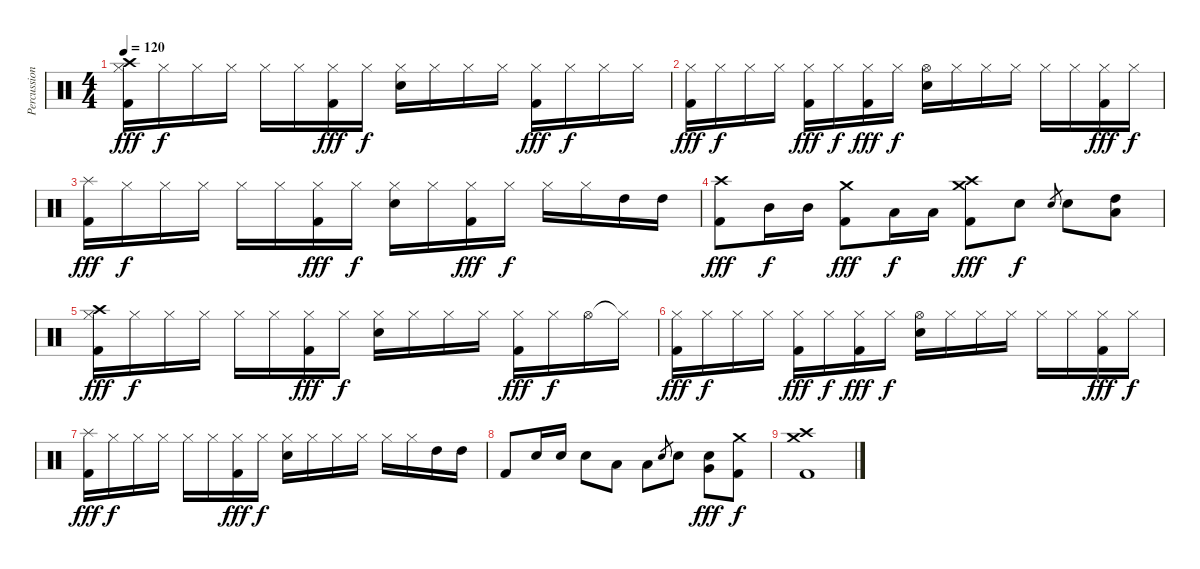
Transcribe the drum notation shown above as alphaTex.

\track ("Percussion" "Percussion") {instrument percussion}
\staff {score}
\articulation defaults
\ts (4 4)
\tempo 120
\clef neutral
\ks c
("Hi-Hat (closed)" "Crash high (hit)" "Kick (hit) 2").16{dy fff} "Hi-Hat (closed)".16{dy f} "Hi-Hat (closed)".16 "Hi-Hat (closed)".16 "Hi-Hat (closed)".16 "Hi-Hat (closed)".16 ("Hi-Hat (closed)" "Kick (hit) 2").16{dy fff} "Hi-Hat (closed)".16{dy f} ("Hi-Hat (closed)" "Electric Snare (hit)").16 "Hi-Hat (closed)".16 "Hi-Hat (closed)".16 "Hi-Hat (closed)".16 ("Hi-Hat (closed)" "Kick (hit) 2").16{dy fff} "Hi-Hat (closed)".16{dy f} "Hi-Hat (closed)".16 "Hi-Hat (closed)".16 |
("Hi-Hat (closed)" "Kick (hit) 2").16{dy fff} "Hi-Hat (closed)".16{dy f} "Hi-Hat (closed)".16 "Hi-Hat (closed)".16 ("Hi-Hat (closed)" "Kick (hit) 2").16{dy fff} "Hi-Hat (closed)".16{dy f} ("Hi-Hat (closed)" "Kick (hit) 2").16{dy fff} "Hi-Hat (closed)".16{dy f} ("Hi-Hat (open)" "Electric Snare (hit)").16 "Hi-Hat (closed)".16 "Hi-Hat (closed)".16 "Hi-Hat (closed)".16 "Hi-Hat (closed)".16 "Hi-Hat (closed)".16 ("Hi-Hat (closed)" "Kick (hit) 2").16{dy fff} "Hi-Hat (closed)".16{dy f} |
("Splash (hit)" "Kick (hit) 2").16{dy fff} "Hi-Hat (closed)".16{dy f} "Hi-Hat (closed)".16 "Hi-Hat (closed)".16 "Hi-Hat (closed)".16 "Hi-Hat (closed)".16 ("Hi-Hat (closed)" "Kick (hit) 2").16{dy fff} "Hi-Hat (closed)".16{dy f} ("Hi-Hat (closed)" "Electric Snare (hit)").16 "Hi-Hat (closed)".16 ("Hi-Hat (closed)" "Kick (hit) 2").16{dy fff} "Hi-Hat (closed)".16{dy f} "Hi-Hat (closed)".16 "Hi-Hat (closed)".16 "High Tom (hit)".16 "High Tom (hit)".16 |
("Crash high (hit)" "Kick (hit) 2").8{dy fff} "Mid Tom (hit)".16{dy f} "Mid Tom (hit)".16 ("Crash medium (hit)" "Kick (hit) 2").8{dy fff} "Low Tom (hit)".16{dy f} "Low Tom (hit)".16 ("Crash high (hit)" "Crash medium (hit)" "Kick (hit) 2").8{dy fff} "Electric Snare (hit)".8{dy f} "Electric Snare (hit)".8{gr} "Electric Snare (hit)".8 ("High Tom (hit)" "Low Tom (hit)").8 |
("Hi-Hat (closed)" "Crash high (hit)" "Kick (hit) 2").16{dy fff} "Hi-Hat (closed)".16{dy f} "Hi-Hat (closed)".16 "Hi-Hat (closed)".16 "Hi-Hat (closed)".16 "Hi-Hat (closed)".16 ("Hi-Hat (closed)" "Kick (hit) 2").16{dy fff} "Hi-Hat (closed)".16{dy f} ("Hi-Hat (closed)" "Electric Snare (hit)").16 "Hi-Hat (closed)".16 "Hi-Hat (closed)".16 "Hi-Hat (closed)".16 ("Hi-Hat (closed)" "Kick (hit) 2").16{dy fff} "Hi-Hat (closed)".16{dy f} "Hi-Hat (open)".16 "Hi-Hat (closed)"{t}.16 |
("Hi-Hat (closed)" "Kick (hit) 2").16{dy fff} "Hi-Hat (closed)".16{dy f} "Hi-Hat (closed)".16 "Hi-Hat (closed)".16 ("Hi-Hat (closed)" "Kick (hit) 2").16{dy fff} "Hi-Hat (closed)".16{dy f} ("Hi-Hat (closed)" "Kick (hit) 2").16{dy fff} "Hi-Hat (closed)".16{dy f} ("Hi-Hat (open)" "Electric Snare (hit)").16 "Hi-Hat (closed)".16 "Hi-Hat (closed)".16 "Hi-Hat (closed)".16 "Hi-Hat (closed)".16 "Hi-Hat (closed)".16 ("Hi-Hat (closed)" "Kick (hit) 2").16{dy fff} "Hi-Hat (closed)".16{dy f} |
("Splash (hit)" "Kick (hit) 2").16{dy fff} "Hi-Hat (closed)".16{dy f} "Hi-Hat (closed)".16 "Hi-Hat (closed)".16 "Hi-Hat (closed)".16 "Hi-Hat (closed)".16 ("Hi-Hat (closed)" "Kick (hit) 2").16{dy fff} "Hi-Hat (closed)".16{dy f} ("Hi-Hat (closed)" "Electric Snare (hit)").16 "Hi-Hat (closed)".16 "Hi-Hat (closed)".16 "Hi-Hat (closed)".16 "Hi-Hat (closed)".16 "Hi-Hat (closed)".16 "High Tom (hit)".16 "High Tom (hit)".16 |
"Kick (hit) 2".8 "Electric Snare (hit)".16 "Electric Snare (hit)".16 "Electric Snare (hit)".8 "Low Tom (hit)".8 "Low Tom (hit)".8 "Electric Snare (hit)".8{gr} "Electric Snare (hit)".8 ("Electric Snare (hit)" "Very Low Tom (hit)").8{dy fff} ("Crash medium (hit)" "Kick (hit) 2").8{dy f} |
("Crash high (hit)" "Crash medium (hit)" "Kick (hit) 2").1
